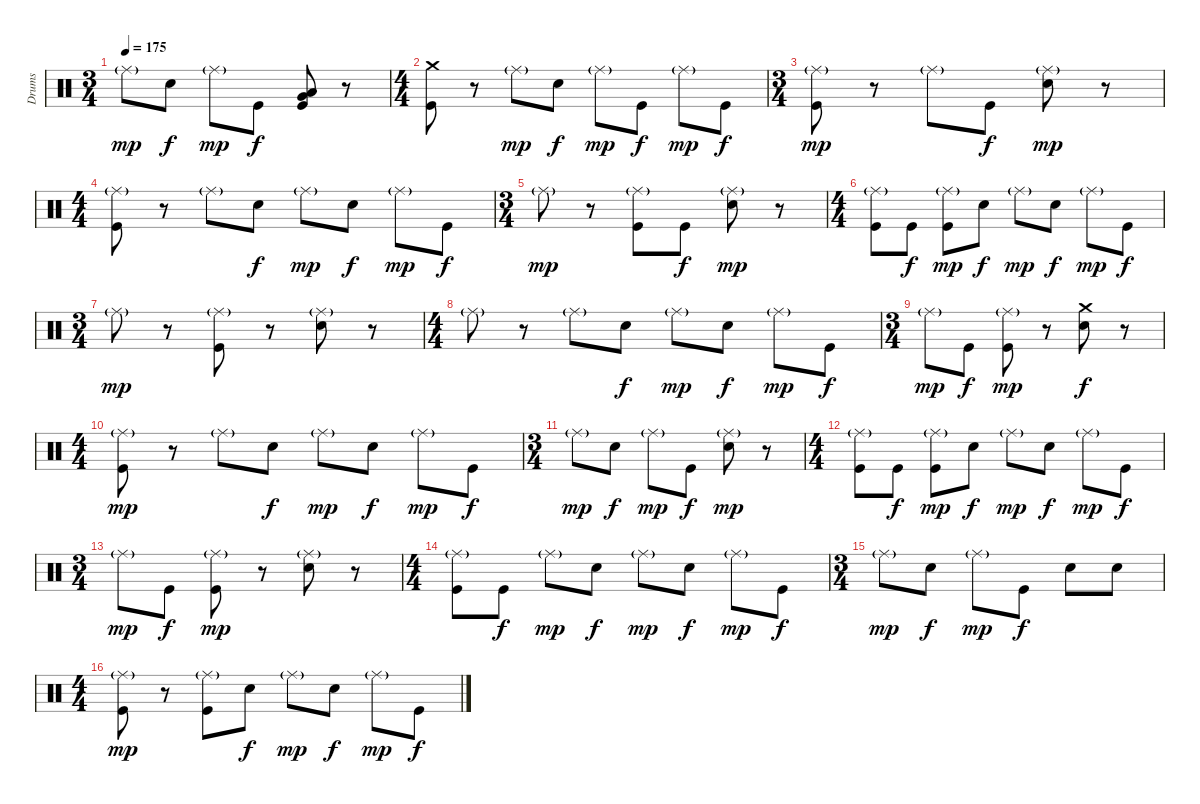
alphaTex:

\track ("Drums" "Drums") {instrument percussion}
\staff {score}
\articulation defaults
\ts (3 4)
\tempo 175
\clef neutral
\ks c "Ride (middle)"{g}.8{dy mp} "Electric Snare (hit)".8{dy f} "Ride (middle)"{g}.8{dy mp} "Kick (hit)".8{dy f}
("Very Low Tom (hit)" "Low Tom (hit)" "Kick (hit)").8 r.8 |
\ts (4 4)
("Crash medium (hit)" "Kick (hit)").8 r.8 "Ride (middle)"{g}.8{dy mp} "Electric Snare (hit)".8{dy f} "Ride (middle)"{g}.8{dy mp} "Kick (hit)".8{dy f} "Ride (middle)"{g}.8{dy mp} "Kick (hit)".8{dy f} |
\ts (3 4)
("Ride (middle)"{g} "Kick (hit)").8{dy mp} r.8 "Ride (middle)"{g}.8 "Kick (hit)".8{dy f} ("Ride (middle)"{g} "Electric Snare (hit)").8{dy mp} r.8 |
\ts (4 4)
("Ride (middle)"{g} "Kick (hit)").8 r.8 "Ride (middle)"{g}.8 "Electric Snare (hit)".8{dy f} "Ride (middle)"{g}.8{dy mp} "Electric Snare (hit)".8{dy f} "Ride (middle)"{g}.8{dy mp} "Kick (hit)".8{dy f} |
\ts (3 4)
"Ride (middle)"{g}.8{dy mp} r.8 ("Ride (middle)"{g} "Kick (hit)").8 "Kick (hit)".8{dy f} ("Ride (middle)"{g} "Electric Snare (hit)").8{dy mp} r.8 |
\ts (4 4)
("Ride (middle)"{g} "Kick (hit)").8 "Kick (hit)".8{dy f} ("Ride (middle)"{g} "Kick (hit)").8{dy mp} "Electric Snare (hit)".8{dy f} "Ride (middle)"{g}.8{dy mp} "Electric Snare (hit)".8{dy f} "Ride (middle)"{g}.8{dy mp} "Kick (hit)".8{dy f} |
\ts (3 4)
"Ride (middle)"{g}.8{dy mp} r.8 ("Ride (middle)"{g} "Kick (hit)").8 r.8 ("Ride (middle)"{g} "Electric Snare (hit)").8 r.8 |
\ts (4 4)
"Ride (middle)"{g}.8 r.8 "Ride (middle)"{g}.8 "Electric Snare (hit)".8{dy f} "Ride (middle)"{g}.8{dy mp} "Electric Snare (hit)".8{dy f} "Ride (middle)"{g}.8{dy mp} "Kick (hit)".8{dy f} |
\ts (3 4)
"Ride (middle)"{g}.8{dy mp} "Kick (hit)".8{dy f} ("Ride (middle)"{g} "Kick (hit)").8{dy mp} r.8 ("Crash medium (hit)" "Electric Snare (hit)").8{dy f} r.8 |
\ts (4 4)
("Ride (middle)"{g} "Kick (hit)").8{dy mp} r.8 "Ride (middle)"{g}.8 "Electric Snare (hit)".8{dy f} "Ride (middle)"{g}.8{dy mp} "Electric Snare (hit)".8{dy f} "Ride (middle)"{g}.8{dy mp} "Kick (hit)".8{dy f} |
\ts (3 4)
"Ride (middle)"{g}.8{dy mp} "Electric Snare (hit)".8{dy f} "Ride (middle)"{g}.8{dy mp} "Kick (hit)".8{dy f} ("Ride (middle)"{g} "Electric Snare (hit)").8{dy mp} r.8 |
\ts (4 4)
("Ride (middle)"{g} "Kick (hit)").8 "Kick (hit)".8{dy f} ("Ride (middle)"{g} "Kick (hit)").8{dy mp} "Electric Snare (hit)".8{dy f} "Ride (middle)"{g}.8{dy mp} "Electric Snare (hit)".8{dy f} "Ride (middle)"{g}.8{dy mp} "Kick (hit)".8{dy f} |
\ts (3 4)
"Ride (middle)"{g}.8{dy mp} "Kick (hit)".8{dy f} ("Ride (middle)"{g} "Kick (hit)").8{dy mp} r.8 ("Ride (middle)"{g} "Electric Snare (hit)").8 r.8 |
\ts (4 4)
("Ride (middle)"{g} "Kick (hit)").8 "Kick (hit)".8{dy f} "Ride (middle)"{g}.8{dy mp} "Electric Snare (hit)".8{dy f} "Ride (middle)"{g}.8{dy mp} "Electric Snare (hit)".8{dy f} "Ride (middle)"{g}.8{dy mp} "Kick (hit)".8{dy f} |
\ts (3 4)
"Ride (middle)"{g}.8{dy mp} "Electric Snare (hit)".8{dy f} "Ride (middle)"{g}.8{dy mp} "Kick (hit)".8{dy f} "Electric Snare (hit)".8 "Electric Snare (hit)".8 |
\ts (4 4)
("Ride (middle)"{g} "Kick (hit)").8{dy mp} r.8 ("Ride (middle)"{g} "Kick (hit)").8 "Electric Snare (hit)".8{dy f} "Ride (middle)"{g}.8{dy mp} "Electric Snare (hit)".8{dy f} "Ride (middle)"{g}.8{dy mp} "Kick (hit)".8{dy f}
